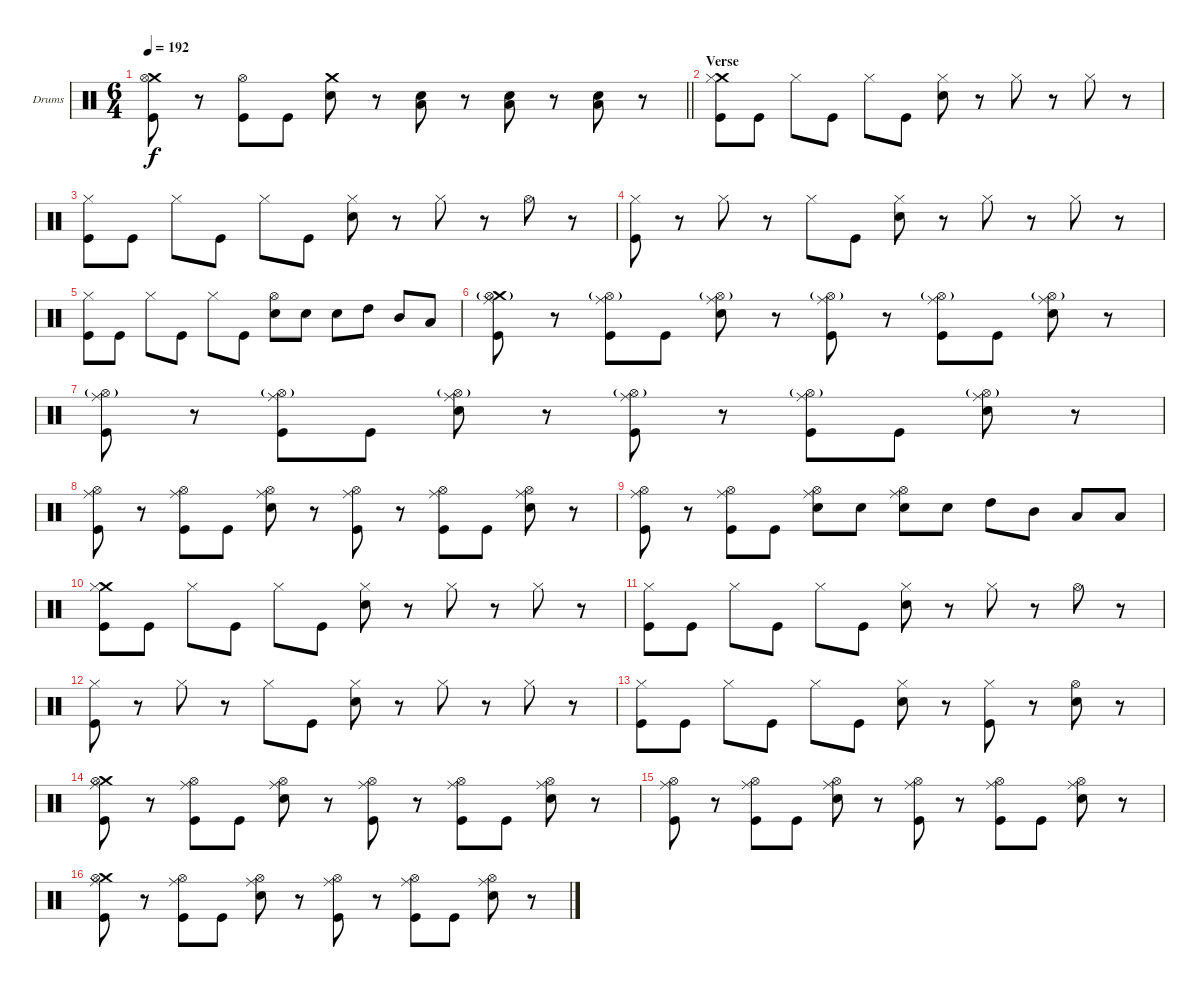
\bracketExtendMode groupsimilarinstruments
\firstSystemTrackNameOrientation horizontal
\otherSystemsTrackNameOrientation horizontal
\track ("Drumkit" "Drums") {instrument percussion}
\staff {score}
\articulation defaults
\ts (6 4)
\tempo 192
\clef neutral
\barLineRight lightlight
\ks c
("Crash medium (hit)" "Hi-Hat (open)" "Kick (hit)").8{dy f} r.8 ("Hi-Hat (open)" "Kick (hit)").8 "Kick (hit)".8 ("Crash medium (hit)" "Snare (hit) 2").8 r.8 ("Low Tom (hit)" "Snare (hit) 2").8 r.8 ("Low Tom (hit)" "Snare (hit) 2").8 r.8 ("Low Tom (hit)" "Snare (hit) 2").8 r.8 |
\section ("" "Verse")
("Crash medium (hit)" "Hi-Hat (closed)" "Kick (hit)").8 "Kick (hit)".8 "Hi-Hat (closed)".8 "Kick (hit)".8 "Hi-Hat (closed)".8 "Kick (hit)".8 ("Hi-Hat (closed)" "Snare (hit) 2").8 r.8 "Hi-Hat (closed)".8 r.8 "Hi-Hat (closed)".8 r.8 |
("Hi-Hat (closed)" "Kick (hit)").8 "Kick (hit)".8 "Hi-Hat (closed)".8 "Kick (hit)".8 "Hi-Hat (closed)".8 "Kick (hit)".8 ("Hi-Hat (closed)" "Snare (hit) 2").8 r.8 "Hi-Hat (closed)".8 r.8 "Hi-Hat (open)".8 r.8 |
("Hi-Hat (closed)" "Kick (hit)").8 r.8 "Hi-Hat (closed)".8 r.8 "Hi-Hat (closed)".8 "Kick (hit)".8 ("Hi-Hat (closed)" "Snare (hit) 2").8 r.8 "Hi-Hat (closed)".8 r.8 "Hi-Hat (closed)".8 r.8 |
("Hi-Hat (closed)" "Kick (hit)").8 "Kick (hit)".8 "Hi-Hat (closed)".8 "Kick (hit)".8 "Hi-Hat (closed)".8 "Kick (hit)".8 ("Hi-Hat (open)" "Snare (hit) 2").8 "Snare (hit) 2".8 "Snare (hit) 2".8 "High Tom (hit)".8 "Mid Tom (hit)".8 "Low Tom (hit)".8 |
("Crash medium (hit)" "Ride (middle)" "Hi-Hat (open)"{g} "Kick (hit)").8 r.8 ("Ride (middle)" "Hi-Hat (open)"{g} "Kick (hit)").8 "Kick (hit)".8 ("Ride (middle)" "Hi-Hat (open)"{g} "Snare (hit) 2").8 r.8 ("Ride (middle)" "Hi-Hat (open)"{g} "Kick (hit)").8 r.8 ("Ride (middle)" "Hi-Hat (open)"{g} "Kick (hit)").8 "Kick (hit)".8 ("Ride (middle)" "Hi-Hat (open)"{g} "Snare (hit) 2").8 r.8 |
("Ride (middle)" "Hi-Hat (open)"{g} "Kick (hit)").8 r.8 ("Ride (middle)" "Hi-Hat (open)"{g} "Kick (hit)").8 "Kick (hit)".8 ("Ride (middle)" "Hi-Hat (open)"{g} "Snare (hit) 2").8 r.8 ("Ride (middle)" "Hi-Hat (open)"{g} "Kick (hit)").8 r.8 ("Ride (middle)" "Hi-Hat (open)"{g} "Kick (hit)").8 "Kick (hit)".8 ("Ride (middle)" "Hi-Hat (open)"{g} "Snare (hit) 2").8 r.8 |
("Ride (middle)" "Hi-Hat (open)" "Kick (hit)").8 r.8 ("Ride (middle)" "Hi-Hat (open)" "Kick (hit)").8 "Kick (hit)".8 ("Ride (middle)" "Hi-Hat (open)" "Snare (hit) 2").8 r.8 ("Ride (middle)" "Hi-Hat (open)" "Kick (hit)").8 r.8 ("Ride (middle)" "Hi-Hat (open)" "Kick (hit)").8 "Kick (hit)".8 ("Ride (middle)" "Hi-Hat (open)" "Snare (hit) 2").8 r.8 |
("Ride (middle)" "Hi-Hat (open)" "Kick (hit)").8 r.8 ("Ride (middle)" "Hi-Hat (open)" "Kick (hit)").8 "Kick (hit)".8 ("Ride (middle)" "Hi-Hat (open)" "Snare (hit) 2").8 "Snare (hit) 2".8 ("Ride (middle)" "Hi-Hat (open)" "Snare (hit) 2").8 "Snare (hit) 2".8 "High Tom (hit)".8 "Mid Tom (hit)".8 "Low Tom (hit)".8 "Low Tom (hit)".8 |
("Crash medium (hit)" "Hi-Hat (closed)" "Kick (hit)").8 "Kick (hit)".8 "Hi-Hat (closed)".8 "Kick (hit)".8 "Hi-Hat (closed)".8 "Kick (hit)".8 ("Hi-Hat (closed)" "Snare (hit) 2").8 r.8 "Hi-Hat (closed)".8 r.8 "Hi-Hat (closed)".8 r.8 |
("Hi-Hat (closed)" "Kick (hit)").8 "Kick (hit)".8 "Hi-Hat (closed)".8 "Kick (hit)".8 "Hi-Hat (closed)".8 "Kick (hit)".8 ("Hi-Hat (closed)" "Snare (hit) 2").8 r.8 "Hi-Hat (closed)".8 r.8 "Hi-Hat (open)".8 r.8 |
("Hi-Hat (closed)" "Kick (hit)").8 r.8 "Hi-Hat (closed)".8 r.8 "Hi-Hat (closed)".8 "Kick (hit)".8 ("Hi-Hat (closed)" "Snare (hit) 2").8 r.8 "Hi-Hat (closed)".8 r.8 "Hi-Hat (closed)".8 r.8 |
("Hi-Hat (closed)" "Kick (hit)").8 "Kick (hit)".8 "Hi-Hat (closed)".8 "Kick (hit)".8 "Hi-Hat (closed)".8 "Kick (hit)".8 ("Hi-Hat (closed)" "Snare (hit) 2").8 r.8 ("Hi-Hat (closed)" "Kick (hit)").8 r.8 ("Hi-Hat (open)" "Snare (hit) 2").8 r.8 |
("Crash medium (hit)" "Ride (middle)" "Hi-Hat (open)" "Kick (hit)").8 r.8 ("Ride (middle)" "Hi-Hat (open)" "Kick (hit)").8 "Kick (hit)".8 ("Ride (middle)" "Hi-Hat (open)" "Snare (hit) 2").8 r.8 ("Ride (middle)" "Hi-Hat (open)" "Kick (hit)").8 r.8 ("Ride (middle)" "Hi-Hat (open)" "Kick (hit)").8 "Kick (hit)".8 ("Ride (middle)" "Hi-Hat (open)" "Snare (hit) 2").8 r.8 |
("Ride (middle)" "Hi-Hat (open)" "Kick (hit)").8 r.8 ("Ride (middle)" "Hi-Hat (open)" "Kick (hit)").8 "Kick (hit)".8 ("Ride (middle)" "Hi-Hat (open)" "Snare (hit) 2").8 r.8 ("Ride (middle)" "Hi-Hat (open)" "Kick (hit)").8 r.8 ("Ride (middle)" "Hi-Hat (open)" "Kick (hit)").8 "Kick (hit)".8 ("Ride (middle)" "Hi-Hat (open)" "Snare (hit) 2").8 r.8 |
("Crash medium (hit)" "Ride (middle)" "Hi-Hat (open)" "Kick (hit)").8 r.8 ("Ride (middle)" "Hi-Hat (open)" "Kick (hit)").8 "Kick (hit)".8 ("Ride (middle)" "Hi-Hat (open)" "Snare (hit) 2").8 r.8 ("Ride (middle)" "Hi-Hat (open)" "Kick (hit)").8 r.8 ("Ride (middle)" "Hi-Hat (open)" "Kick (hit)").8 "Kick (hit)".8 ("Ride (middle)" "Hi-Hat (open)" "Snare (hit) 2").8 r.8
